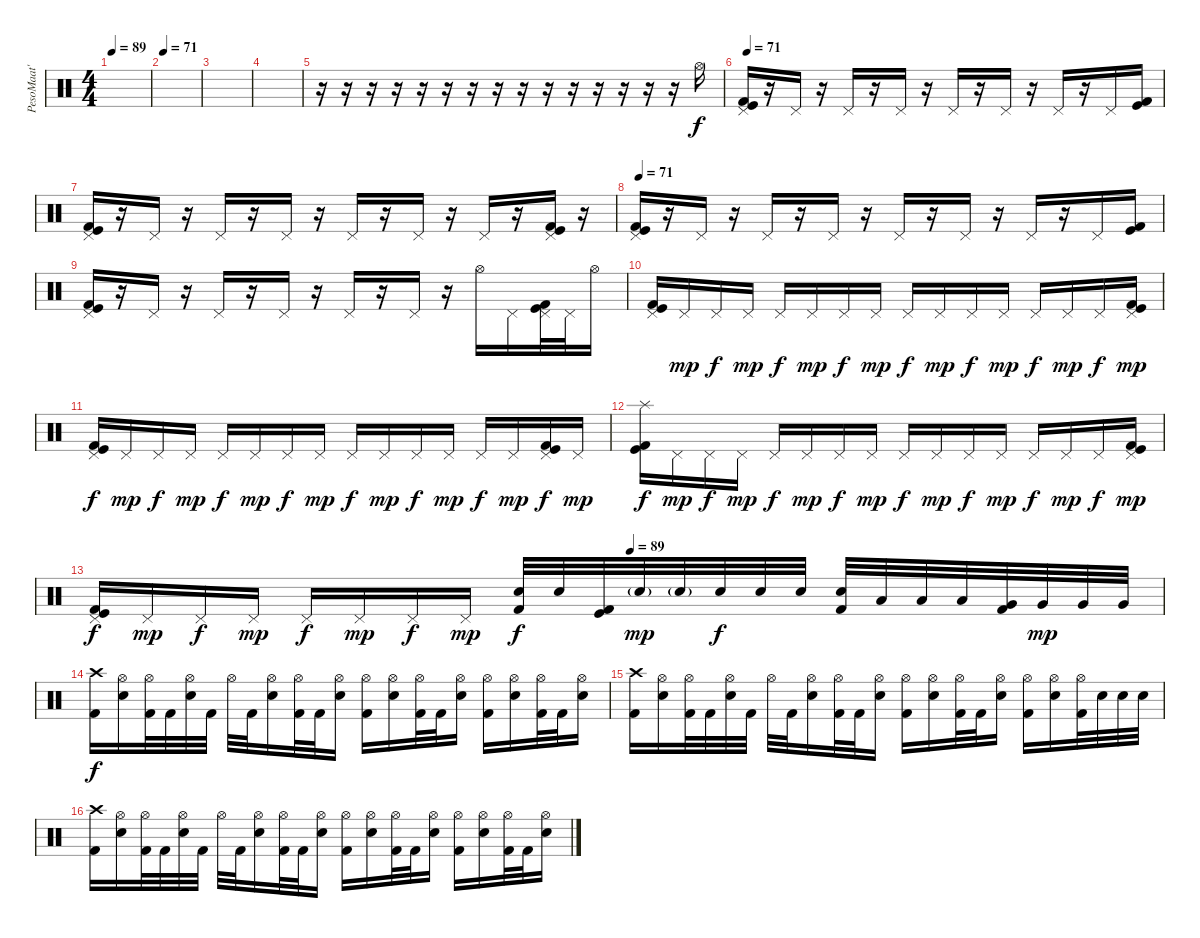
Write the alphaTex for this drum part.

\track ("PesoMaat' us" "PesoMaat' ") {instrument percussion}
\staff {score}
\articulation defaults
\ts (4 4)
\tempo 89
\tempo 71
\tempo 89
\clef neutral
\ks c
|
\tempo 71
|
|
|
r.16 r.16 r.16 r.16 r.16 r.16 r.16 r.16 r.16 r.16 r.16 r.16 r.16 r.16 r.16 "Hi-Hat (open)".16 |
\tempo 71
("Pedal Hi-Hat (hit)" "Kick (hit)" "Kick (hit) 2").16 r.16 "Pedal Hi-Hat (hit)".16 r.16 "Pedal Hi-Hat (hit)".16 r.16 "Pedal Hi-Hat (hit)".16 r.16 "Pedal Hi-Hat (hit)".16 r.16 "Pedal Hi-Hat (hit)".16 r.16 "Pedal Hi-Hat (hit)".16 r.16 "Pedal Hi-Hat (hit)".16 ("Kick (hit)" "Kick (hit) 2").16 |
("Pedal Hi-Hat (hit)" "Kick (hit)" "Kick (hit) 2").16 r.16 "Pedal Hi-Hat (hit)".16 r.16 "Pedal Hi-Hat (hit)".16 r.16 "Pedal Hi-Hat (hit)".16 r.16 "Pedal Hi-Hat (hit)".16 r.16 "Pedal Hi-Hat (hit)".16 r.16 "Pedal Hi-Hat (hit)".16 r.16 ("Pedal Hi-Hat (hit)" "Kick (hit)" "Kick (hit) 2").16 r.16 |
\tempo 71
("Pedal Hi-Hat (hit)" "Kick (hit)" "Kick (hit) 2").16 r.16 "Pedal Hi-Hat (hit)".16 r.16 "Pedal Hi-Hat (hit)".16 r.16 "Pedal Hi-Hat (hit)".16 r.16 "Pedal Hi-Hat (hit)".16 r.16 "Pedal Hi-Hat (hit)".16 r.16 "Pedal Hi-Hat (hit)".16 r.16 "Pedal Hi-Hat (hit)".16 ("Kick (hit)" "Kick (hit) 2").16 |
("Pedal Hi-Hat (hit)" "Kick (hit)" "Kick (hit) 2").16 r.16 "Pedal Hi-Hat (hit)".16 r.16 "Pedal Hi-Hat (hit)".16 r.16 "Pedal Hi-Hat (hit)".16 r.16 "Pedal Hi-Hat (hit)".16 r.16 "Pedal Hi-Hat (hit)".16 r.16 "Hi-Hat (open)".16 "Pedal Hi-Hat (hit)".16 ("Pedal Hi-Hat (hit)" "Kick (hit)" "Kick (hit) 2").32 "Pedal Hi-Hat (hit)".32 "Hi-Hat (open)".16 |
("Pedal Hi-Hat (hit)" "Kick (hit)" "Kick (hit) 2").16 "Pedal Hi-Hat (hit)".16{dy mp} "Pedal Hi-Hat (hit)".16{dy f} "Pedal Hi-Hat (hit)".16{dy mp} "Pedal Hi-Hat (hit)".16{dy f} "Pedal Hi-Hat (hit)".16{dy mp} "Pedal Hi-Hat (hit)".16{dy f} "Pedal Hi-Hat (hit)".16{dy mp} "Pedal Hi-Hat (hit)".16{dy f} "Pedal Hi-Hat (hit)".16{dy mp} "Pedal Hi-Hat (hit)".16{dy f} "Pedal Hi-Hat (hit)".16{dy mp} "Pedal Hi-Hat (hit)".16{dy f} "Pedal Hi-Hat (hit)".16{dy mp} "Pedal Hi-Hat (hit)".16{dy f} ("Pedal Hi-Hat (hit)" "Kick (hit)" "Kick (hit) 2").16{dy mp} |
("Pedal Hi-Hat (hit)" "Kick (hit)" "Kick (hit) 2").16{dy f} "Pedal Hi-Hat (hit)".16{dy mp} "Pedal Hi-Hat (hit)".16{dy f} "Pedal Hi-Hat (hit)".16{dy mp} "Pedal Hi-Hat (hit)".16{dy f} "Pedal Hi-Hat (hit)".16{dy mp} "Pedal Hi-Hat (hit)".16{dy f} "Pedal Hi-Hat (hit)".16{dy mp} "Pedal Hi-Hat (hit)".16{dy f} "Pedal Hi-Hat (hit)".16{dy mp} "Pedal Hi-Hat (hit)".16{dy f} "Pedal Hi-Hat (hit)".16{dy mp} "Pedal Hi-Hat (hit)".16{dy f} "Pedal Hi-Hat (hit)".16{dy mp} ("Pedal Hi-Hat (hit)" "Kick (hit)" "Kick (hit) 2").16{dy f} "Pedal Hi-Hat (hit)".16{dy mp} |
("Splash (hit)" "Kick (hit)" "Kick (hit) 2").16{dy f} "Pedal Hi-Hat (hit)".16{dy mp} "Pedal Hi-Hat (hit)".16{dy f} "Pedal Hi-Hat (hit)".16{dy mp} "Pedal Hi-Hat (hit)".16{dy f} "Pedal Hi-Hat (hit)".16{dy mp} "Pedal Hi-Hat (hit)".16{dy f} "Pedal Hi-Hat (hit)".16{dy mp} "Pedal Hi-Hat (hit)".16{dy f} "Pedal Hi-Hat (hit)".16{dy mp} "Pedal Hi-Hat (hit)".16{dy f} "Pedal Hi-Hat (hit)".16{dy mp} "Pedal Hi-Hat (hit)".16{dy f} "Pedal Hi-Hat (hit)".16{dy mp} "Pedal Hi-Hat (hit)".16{dy f} ("Pedal Hi-Hat (hit)" "Kick (hit)" "Kick (hit) 2").16{dy mp} |
\tempo (89 0.5)
("Pedal Hi-Hat (hit)" "Kick (hit)" "Kick (hit) 2").16{dy f} "Pedal Hi-Hat (hit)".16{dy mp} "Pedal Hi-Hat (hit)".16{dy f} "Pedal Hi-Hat (hit)".16{dy mp} "Pedal Hi-Hat (hit)".16{dy f} "Pedal Hi-Hat (hit)".16{dy mp} "Pedal Hi-Hat (hit)".16{dy f} "Pedal Hi-Hat (hit)".16{dy mp} ("Electric Snare (hit)" "Kick (hit) 2").32{dy f} "Electric Snare (hit)".32 ("Kick (hit)" "Kick (hit) 2").32 "Electric Snare (hit)"{g}.32{dy mp} "Electric Snare (hit)"{g}.32 "Electric Snare (hit)".32{dy f} "Electric Snare (hit)".32 "Electric Snare (hit)".32 ("Electric Snare (hit)" "Kick (hit) 2").32 "Low Tom (hit)".32 "Low Tom (hit)".32 "Low Tom (hit)".32 ("Very Low Tom (hit)" "Kick (hit) 2").32 "Very Low Tom (hit)".32{dy mp} "Very Low Tom (hit)".32 "Very Low Tom (hit)".32 |
("Crash high (hit)" "Kick (hit) 2").16{dy f} ("Hi-Hat (open)" "Electric Snare (hit)").16 ("Hi-Hat (open)" "Kick (hit) 2").32 "Kick (hit) 2".32 ("Hi-Hat (open)" "Electric Snare (hit)").32 "Kick (hit) 2".32 "Hi-Hat (open)".32 "Kick (hit) 2".32 ("Hi-Hat (open)" "Electric Snare (hit)").16 ("Hi-Hat (open)" "Kick (hit) 2").32 "Kick (hit) 2".32 ("Hi-Hat (open)" "Electric Snare (hit)").16 ("Hi-Hat (open)" "Kick (hit) 2").16 ("Hi-Hat (open)" "Electric Snare (hit)").16 ("Hi-Hat (open)" "Kick (hit) 2").32 "Kick (hit) 2".32 ("Hi-Hat (open)" "Electric Snare (hit)").16 ("Hi-Hat (open)" "Kick (hit) 2").16 ("Hi-Hat (open)" "Electric Snare (hit)").16 ("Hi-Hat (open)" "Kick (hit) 2").32 "Kick (hit) 2".32 ("Hi-Hat (open)" "Electric Snare (hit)").16 |
("Crash high (hit)" "Kick (hit) 2").16 ("Hi-Hat (open)" "Electric Snare (hit)").16 ("Hi-Hat (open)" "Kick (hit) 2").32 "Kick (hit) 2".32 ("Hi-Hat (open)" "Electric Snare (hit)").32 "Kick (hit) 2".32 "Hi-Hat (open)".32 "Kick (hit) 2".32 ("Hi-Hat (open)" "Electric Snare (hit)").16 ("Hi-Hat (open)" "Kick (hit) 2").32 "Kick (hit) 2".32 ("Hi-Hat (open)" "Electric Snare (hit)").16 ("Hi-Hat (open)" "Kick (hit) 2").16 ("Hi-Hat (open)" "Electric Snare (hit)").16 ("Hi-Hat (open)" "Kick (hit) 2").32 "Kick (hit) 2".32 ("Hi-Hat (open)" "Electric Snare (hit)").16 ("Hi-Hat (open)" "Kick (hit) 2").16 ("Hi-Hat (open)" "Electric Snare (hit)").16 ("Hi-Hat (open)" "Kick (hit) 2").32 "Electric Snare (hit)".32 "Electric Snare (hit)".32 "Electric Snare (hit)".32 |
("Crash high (hit)" "Kick (hit) 2").16 ("Hi-Hat (open)" "Electric Snare (hit)").16 ("Hi-Hat (open)" "Kick (hit) 2").32 "Kick (hit) 2".32 ("Hi-Hat (open)" "Electric Snare (hit)").32 "Kick (hit) 2".32 "Hi-Hat (open)".32 "Kick (hit) 2".32 ("Hi-Hat (open)" "Electric Snare (hit)").16 ("Hi-Hat (open)" "Kick (hit) 2").32 "Kick (hit) 2".32 ("Hi-Hat (open)" "Electric Snare (hit)").16 ("Hi-Hat (open)" "Kick (hit) 2").16 ("Hi-Hat (open)" "Electric Snare (hit)").16 ("Hi-Hat (open)" "Kick (hit) 2").32 "Kick (hit) 2".32 ("Hi-Hat (open)" "Electric Snare (hit)").16 ("Hi-Hat (open)" "Kick (hit) 2").16 ("Hi-Hat (open)" "Electric Snare (hit)").16 ("Hi-Hat (open)" "Kick (hit) 2").32 "Kick (hit) 2".32 ("Hi-Hat (open)" "Electric Snare (hit)").16
